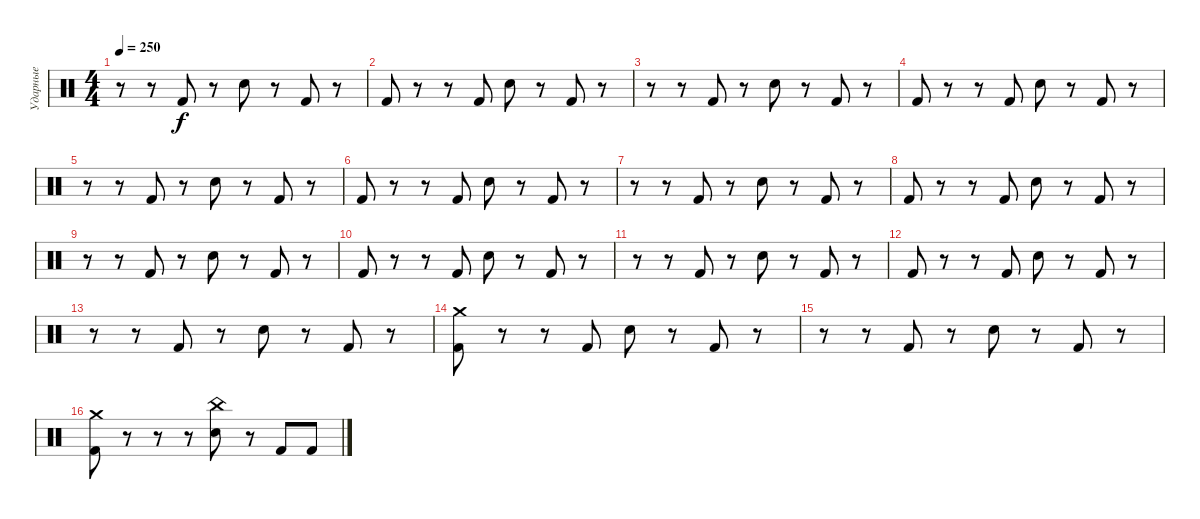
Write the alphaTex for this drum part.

\track ("Ударные" "Ударные") {instrument percussion}
\staff {score}
\articulation defaults
\ts (4 4)
\tempo 250
\clef neutral
\ks c
r.8{dy f} r.8 "Kick (hit) 2".8 r.8 "Snare (hit) 2".8 r.8 "Kick (hit) 2".8 r.8 |
"Kick (hit) 2".8 r.8 r.8 "Kick (hit) 2".8 "Snare (hit) 2".8 r.8 "Kick (hit) 2".8 r.8 |
r.8 r.8 "Kick (hit) 2".8 r.8 "Snare (hit) 2".8 r.8 "Kick (hit) 2".8 r.8 |
"Kick (hit) 2".8 r.8 r.8 "Kick (hit) 2".8 "Snare (hit) 2".8 r.8 "Kick (hit) 2".8 r.8 |
r.8 r.8 "Kick (hit) 2".8 r.8 "Snare (hit) 2".8 r.8 "Kick (hit) 2".8 r.8 |
"Kick (hit) 2".8 r.8 r.8 "Kick (hit) 2".8 "Snare (hit) 2".8 r.8 "Kick (hit) 2".8 r.8 |
r.8 r.8 "Kick (hit) 2".8 r.8 "Snare (hit) 2".8 r.8 "Kick (hit) 2".8 r.8 |
"Kick (hit) 2".8 r.8 r.8 "Kick (hit) 2".8 "Snare (hit) 2".8 r.8 "Kick (hit) 2".8 r.8 |
r.8 r.8 "Kick (hit) 2".8 r.8 "Snare (hit) 2".8 r.8 "Kick (hit) 2".8 r.8 |
"Kick (hit) 2".8 r.8 r.8 "Kick (hit) 2".8 "Snare (hit) 2".8 r.8 "Kick (hit) 2".8 r.8 |
r.8 r.8 "Kick (hit) 2".8 r.8 "Snare (hit) 2".8 r.8 "Kick (hit) 2".8 r.8 |
"Kick (hit) 2".8 r.8 r.8 "Kick (hit) 2".8 "Snare (hit) 2".8 r.8 "Kick (hit) 2".8 r.8 |
r.8 r.8 "Kick (hit) 2".8 r.8 "Snare (hit) 2".8 r.8 "Kick (hit) 2".8 r.8 |
("Crash medium (hit)" "Kick (hit) 2").8 r.8 r.8 "Kick (hit) 2".8 "Snare (hit) 2".8 r.8 "Kick (hit) 2".8 r.8 |
r.8 r.8 "Kick (hit) 2".8 r.8 "Snare (hit) 2".8 r.8 "Kick (hit) 2".8 r.8 |
("Crash medium (hit)" "Kick (hit) 2").8 r.8 r.8 r.8 ("Snare (hit) 2" "China (hit)").8 r.8 "Kick (hit) 2".8 "Kick (hit) 2".8
